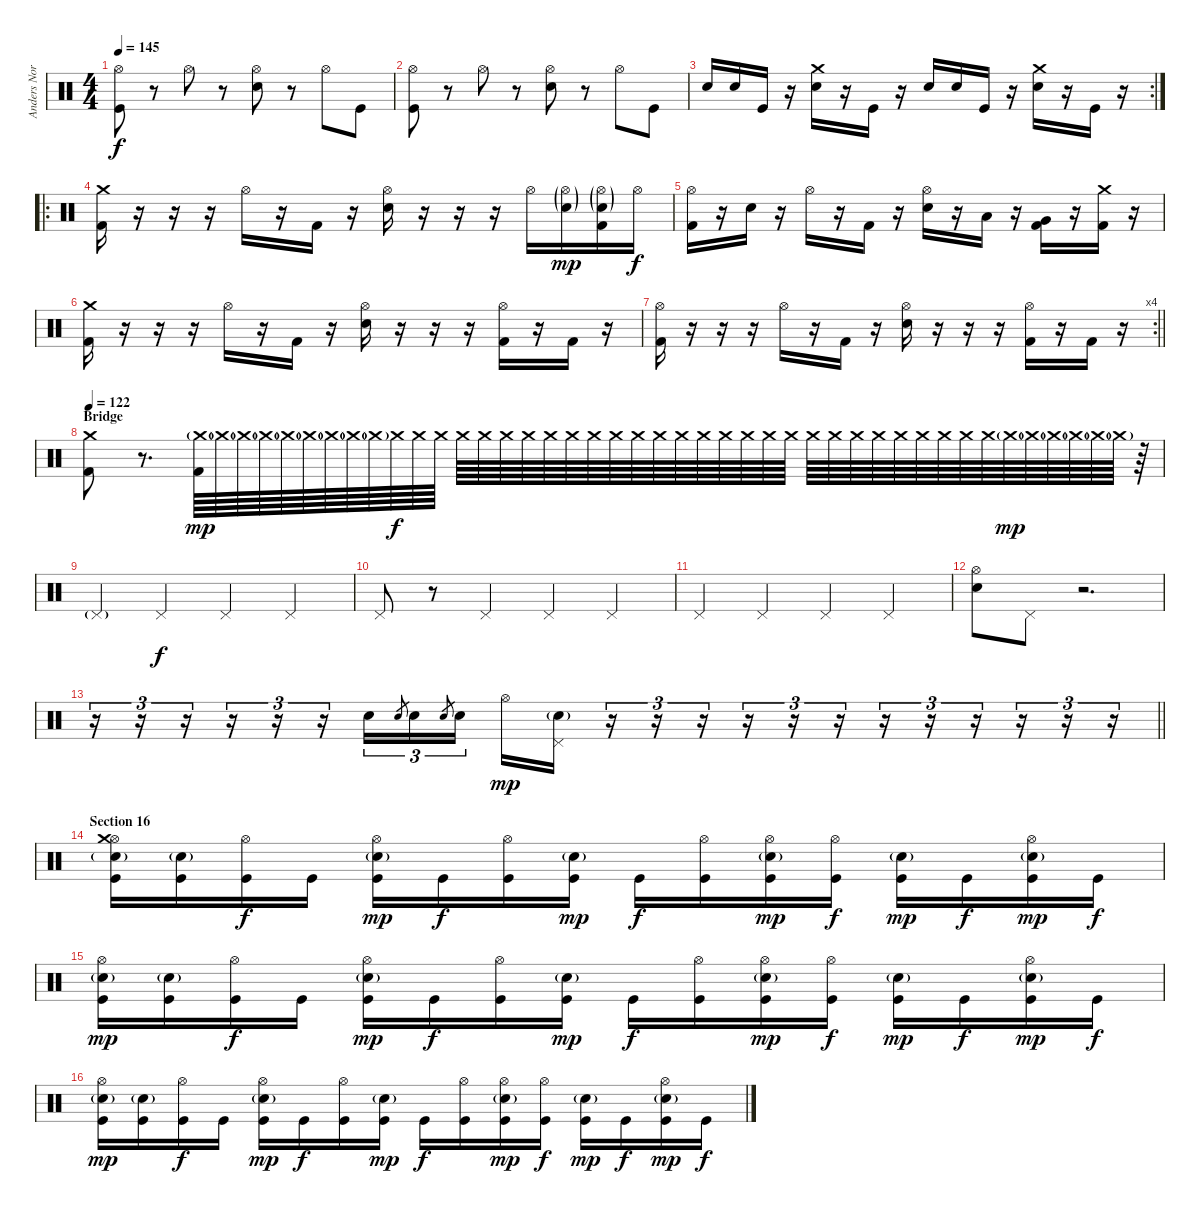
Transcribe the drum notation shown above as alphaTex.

\track ("Anders Nordin" "Anders Nor") {instrument percussion}
\staff {score}
\articulation defaults
\ts (4 4)
\tempo 145
\clef neutral
\ks c
("Hi-Hat (open)" "Kick (hit)").8{dy f} r.8 "Hi-Hat (open)".8 r.8 ("Hi-Hat (open)" "Snare (hit) 2").8 r.8 "Hi-Hat (open)".8 "Kick (hit)".8 |
("Hi-Hat (open)" "Kick (hit)").8 r.8 "Hi-Hat (open)".8 r.8 ("Hi-Hat (open)" "Snare (hit) 2").8 r.8 "Hi-Hat (open)".8 "Kick (hit)".8 |
\rc 2 "Snare (hit) 2".16 "Snare (hit) 2".16 "Kick (hit)".16
r.16 ("Snare (hit) 2" "Crash medium (hit)").16 r.16 "Kick (hit)".16 r.16 "Snare (hit) 2".16 "Snare (hit) 2".16 "Kick (hit)".16 r.16 ("Snare (hit) 2" "Crash medium (hit)").16 r.16 "Kick (hit)".16 r.16 |
\ro
("Crash medium (hit)" "Kick (hit) 2").16 r.16 r.16 r.16 "Hi-Hat (open)".16 r.16 "Kick (hit) 2".16 r.16 ("Hi-Hat (open)" "Snare (hit) 2").16 r.16 r.16 r.16 "Hi-Hat (open)".16 ("Hi-Hat (open)"{g} "Snare (hit) 2"{g}).16{dy mp} ("Hi-Hat (open)"{g} "Snare (hit) 2"{g} "Kick (hit) 2").16 "Hi-Hat (open)".16{dy f} |
("Hi-Hat (open)" "Kick (hit) 2").16 r.16 "Snare (hit) 2".16 r.16 "Hi-Hat (open)".16 r.16 "Kick (hit) 2".16 r.16 ("Hi-Hat (open)" "Snare (hit) 2").16 r.16 "Low Tom (hit)".16 r.16 ("Very Low Tom (hit)" "Kick (hit) 2").16 r.16 ("Crash medium (hit)" "Kick (hit) 2").16 r.16 |
("Crash medium (hit)" "Kick (hit) 2").16 r.16 r.16 r.16 "Hi-Hat (open)".16 r.16 "Kick (hit) 2".16 r.16 ("Hi-Hat (open)" "Snare (hit) 2").16 r.16 r.16 r.16 ("Hi-Hat (open)" "Kick (hit) 2").16 r.16 "Kick (hit) 2".16 r.16 |
\rc 4
\barLineRight lightlight
("Hi-Hat (open)" "Kick (hit) 2").16 r.16 r.16 r.16 "Hi-Hat (open)".16 r.16 "Kick (hit) 2".16 r.16 ("Hi-Hat (open)" "Snare (hit) 2").16 r.16 r.16 r.16 ("Hi-Hat (open)" "Kick (hit) 2").16 r.16 "Kick (hit) 2".16 r.16 |
\section ("" "Bridge")
\tempo 122
("Kick (hit) 2" "Crash medium (hit)").8 r.8{d volume 4} ("Kick (hit) 2" "Crash medium (hit)"{g}).64{dy mp volume 11} "Crash medium (hit)"{g}.64 "Crash medium (hit)"{g}.64 "Crash medium (hit)"{g}.64 "Crash medium (hit)"{g}.64 "Crash medium (hit)"{g}.64 "Crash medium (hit)"{g}.64 "Crash medium (hit)"{g}.64 "Crash medium (hit)"{g}.64 "Crash medium (hit)".64{dy f} "Crash medium (hit)".64 "Crash medium (hit)".64 "Crash medium (hit)".64 "Crash medium (hit)".64 "Crash medium (hit)".64 "Crash medium (hit)".64 "Crash medium (hit)".64 "Crash medium (hit)".64 "Crash medium (hit)".64 "Crash medium (hit)".64 "Crash medium (hit)".64 "Crash medium (hit)".64 "Crash medium (hit)".64 "Crash medium (hit)".64 "Crash medium (hit)".64 "Crash medium (hit)".64 "Crash medium (hit)".64 "Crash medium (hit)".64 "Crash medium (hit)".64 "Crash medium (hit)".64 "Crash medium (hit)".64 "Crash medium (hit)".64 "Crash medium (hit)".64 "Crash medium (hit)".64 "Crash medium (hit)".64 "Crash medium (hit)".64 "Crash medium (hit)".64 "Crash medium (hit)"{g}.64{dy mp} "Crash medium (hit)"{g}.64 "Crash medium (hit)"{g}.64 "Crash medium (hit)"{g}.64 "Crash medium (hit)"{g}.64 "Crash medium (hit)"{g}.64 r.64 |
"Pedal Hi-Hat (hit)"{g}.4{volume 14} "Pedal Hi-Hat (hit)".4{dy f} "Pedal Hi-Hat (hit)".4 "Pedal Hi-Hat (hit)".4 |
"Pedal Hi-Hat (hit)".8 r.8 "Pedal Hi-Hat (hit)".4 "Pedal Hi-Hat (hit)".4 "Pedal Hi-Hat (hit)".4 |
"Pedal Hi-Hat (hit)".4 "Pedal Hi-Hat (hit)".4 "Pedal Hi-Hat (hit)".4 "Pedal Hi-Hat (hit)".4 |
("Hi-Hat (open)" "Snare (hit) 2").8{volume 16} "Pedal Hi-Hat (hit)".8 r.2{d} |
\barLineRight lightlight
r.16{tu (3 2)} r.16{tu (3 2)} r.16{tu (3 2)} r.16{tu (3 2)} r.16{tu (3 2)} r.16{tu (3 2)} "Snare (hit) 2".16{tu (3 2)} "Snare (hit) 2".8{gr} "Snare (hit) 2".16{tu (3 2)} "Snare (hit) 2".8{gr} "Snare (hit) 2".16{tu (3 2) beam splitsecondary} "Hi-Hat (open)".16{dy mp} ("Snare (hit) 2"{g} "Pedal Hi-Hat (hit)").16 r.16{tu (3 2)} r.16{tu (3 2)} r.16{tu (3 2)} r.16{tu (3 2)} r.16{tu (3 2)} r.16{tu (3 2)} r.16{tu (3 2)} r.16{tu (3 2)} r.16{tu (3 2)} r.16{tu (3 2)} r.16{tu (3 2)} r.16{tu (3 2)} |
\section ("" "Section 16")
("Snare (hit) 2"{g} "Hi-Hat (open)" "Crash medium (hit)" "Kick (hit)").16 ("Snare (hit) 2"{g} "Kick (hit)").16 ("Hi-Hat (open)" "Kick (hit)").16{dy f} "Kick (hit)".16 ("Snare (hit) 2"{g} "Hi-Hat (open)" "Kick (hit)").16{dy mp} "Kick (hit)".16{dy f} ("Hi-Hat (open)" "Kick (hit)").16 ("Snare (hit) 2"{g} "Kick (hit)").16{dy mp} "Kick (hit)".16{dy f} ("Hi-Hat (open)" "Kick (hit)").16 ("Snare (hit) 2"{g} "Hi-Hat (open)" "Kick (hit)").16{dy mp} ("Hi-Hat (open)" "Kick (hit)").16{dy f} ("Snare (hit) 2"{g} "Kick (hit)").16{dy mp} "Kick (hit)".16{dy f} ("Snare (hit) 2"{g} "Hi-Hat (open)" "Kick (hit)").16{dy mp} "Kick (hit)".16{dy f} |
("Snare (hit) 2"{g} "Hi-Hat (open)" "Kick (hit)").16{dy mp} ("Snare (hit) 2"{g} "Kick (hit)").16 ("Hi-Hat (open)" "Kick (hit)").16{dy f} "Kick (hit)".16 ("Snare (hit) 2"{g} "Hi-Hat (open)" "Kick (hit)").16{dy mp} "Kick (hit)".16{dy f} ("Hi-Hat (open)" "Kick (hit)").16 ("Snare (hit) 2"{g} "Kick (hit)").16{dy mp} "Kick (hit)".16{dy f} ("Hi-Hat (open)" "Kick (hit)").16 ("Snare (hit) 2"{g} "Hi-Hat (open)" "Kick (hit)").16{dy mp} ("Hi-Hat (open)" "Kick (hit)").16{dy f} ("Snare (hit) 2"{g} "Kick (hit)").16{dy mp} "Kick (hit)".16{dy f} ("Snare (hit) 2"{g} "Hi-Hat (open)" "Kick (hit)").16{dy mp} "Kick (hit)".16{dy f} |
("Snare (hit) 2"{g} "Hi-Hat (open)" "Kick (hit)").16{dy mp} ("Snare (hit) 2"{g} "Kick (hit)").16 ("Hi-Hat (open)" "Kick (hit)").16{dy f} "Kick (hit)".16 ("Snare (hit) 2"{g} "Hi-Hat (open)" "Kick (hit)").16{dy mp} "Kick (hit)".16{dy f} ("Hi-Hat (open)" "Kick (hit)").16 ("Snare (hit) 2"{g} "Kick (hit)").16{dy mp} "Kick (hit)".16{dy f} ("Hi-Hat (open)" "Kick (hit)").16 ("Snare (hit) 2"{g} "Hi-Hat (open)" "Kick (hit)").16{dy mp} ("Hi-Hat (open)" "Kick (hit)").16{dy f} ("Snare (hit) 2"{g} "Kick (hit)").16{dy mp} "Kick (hit)".16{dy f} ("Snare (hit) 2"{g} "Hi-Hat (open)" "Kick (hit)").16{dy mp} "Kick (hit)".16{dy f}
